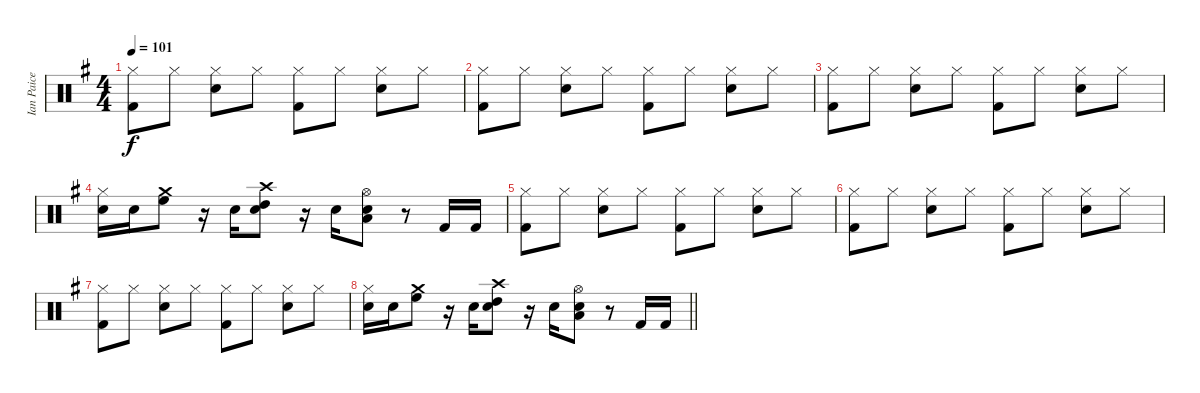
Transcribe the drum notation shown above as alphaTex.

\track ("Ian Paice" "Ian Paice") {instrument percussion}
\staff {score}
\articulation defaults
\ts (4 4)
\tempo 101
\clef neutral
\ks g
("Hi-Hat (closed)" "Kick (hit) 2").8{dy f} "Hi-Hat (closed)".8 ("Hi-Hat (closed)" "Snare (hit) 2").8 "Hi-Hat (closed)".8 ("Hi-Hat (closed)" "Kick (hit) 2").8 "Hi-Hat (closed)".8 ("Hi-Hat (closed)" "Snare (hit) 2").8 "Hi-Hat (closed)".8 |
("Hi-Hat (closed)" "Kick (hit) 2").8 "Hi-Hat (closed)".8 ("Hi-Hat (closed)" "Snare (hit) 2").8 "Hi-Hat (closed)".8 ("Hi-Hat (closed)" "Kick (hit) 2").8 "Hi-Hat (closed)".8 ("Hi-Hat (closed)" "Snare (hit) 2").8 "Hi-Hat (closed)".8 |
("Hi-Hat (closed)" "Kick (hit) 2").8 "Hi-Hat (closed)".8 ("Hi-Hat (closed)" "Snare (hit) 2").8 "Hi-Hat (closed)".8 ("Hi-Hat (closed)" "Kick (hit) 2").8 "Hi-Hat (closed)".8 ("Hi-Hat (closed)" "Snare (hit) 2").8 "Hi-Hat (closed)".8 |
("Snare (hit) 2" "Hi-Hat (closed)").16 "Snare (hit) 2".16 ("Crash medium (hit)" "High Floor Tom (hit)").8 r.16 "Snare (hit) 2".16 ("Crash high (hit)" "High Tom (hit)" "Snare (hit) 2").8 r.16 "Snare (hit) 2".16 ("Hi-Hat (open)" "Low Tom (hit)" "Snare (hit) 2").8 r.8 "Kick (hit) 2".16 "Kick (hit) 2".16 |
("Hi-Hat (closed)" "Kick (hit) 2").8 "Hi-Hat (closed)".8 ("Hi-Hat (closed)" "Snare (hit) 2").8 "Hi-Hat (closed)".8 ("Hi-Hat (closed)" "Kick (hit) 2").8 "Hi-Hat (closed)".8 ("Hi-Hat (closed)" "Snare (hit) 2").8 "Hi-Hat (closed)".8 |
("Hi-Hat (closed)" "Kick (hit) 2").8 "Hi-Hat (closed)".8 ("Hi-Hat (closed)" "Snare (hit) 2").8 "Hi-Hat (closed)".8 ("Hi-Hat (closed)" "Kick (hit) 2").8 "Hi-Hat (closed)".8 ("Hi-Hat (closed)" "Snare (hit) 2").8 "Hi-Hat (closed)".8 |
("Hi-Hat (closed)" "Kick (hit) 2").8 "Hi-Hat (closed)".8 ("Hi-Hat (closed)" "Snare (hit) 2").8 "Hi-Hat (closed)".8 ("Hi-Hat (closed)" "Kick (hit) 2").8 "Hi-Hat (closed)".8 ("Hi-Hat (closed)" "Snare (hit) 2").8 "Hi-Hat (closed)".8 |
\barLineRight lightlight
("Snare (hit) 2" "Hi-Hat (closed)").16 "Snare (hit) 2".16 ("Crash medium (hit)" "High Floor Tom (hit)").8 r.16 "Snare (hit) 2".16 ("Crash high (hit)" "High Tom (hit)" "Snare (hit) 2").8 r.16 "Snare (hit) 2".16 ("Hi-Hat (open)" "Low Tom (hit)" "Snare (hit) 2").8 r.8 "Kick (hit) 2".16 "Kick (hit) 2".16
